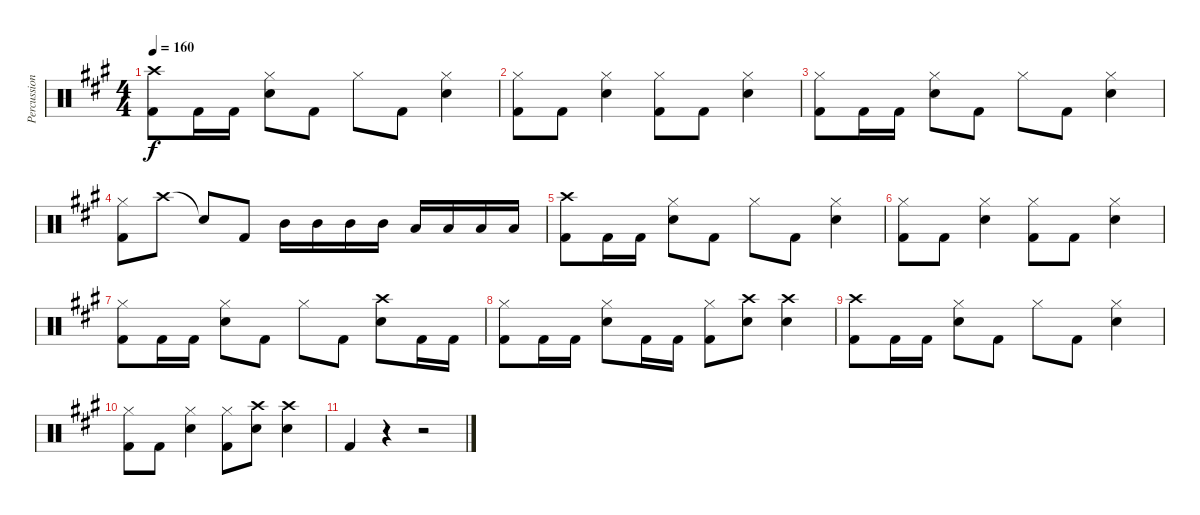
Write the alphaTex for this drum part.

\track ("Percussions" "Percussion") {instrument percussion}
\staff {score}
\articulation defaults
\ts (4 4)
\tempo 160
\clef neutral
\ks a
("Kick (hit) 2" "Crash high (hit)").8{dy f} "Kick (hit) 2".16 "Kick (hit) 2".16 ("Hi-Hat (closed)" "Snare (hit) 2").8 "Kick (hit) 2".8 "Hi-Hat (closed)".8 "Kick (hit) 2".8 ("Hi-Hat (closed)" "Snare (hit) 2").4 |
("Hi-Hat (closed)" "Kick (hit) 2").8 "Kick (hit) 2".8 ("Hi-Hat (closed)" "Snare (hit) 2").4 ("Hi-Hat (closed)" "Kick (hit) 2").8 "Kick (hit) 2".8 ("Hi-Hat (closed)" "Snare (hit) 2").4 |
("Hi-Hat (closed)" "Kick (hit) 2").8 "Kick (hit) 2".16 "Kick (hit) 2".16 ("Hi-Hat (closed)" "Snare (hit) 2").8 "Kick (hit) 2".8 "Hi-Hat (closed)".8 "Kick (hit) 2".8 ("Hi-Hat (closed)" "Snare (hit) 2").4 |
("Hi-Hat (closed)" "Kick (hit) 2").8 "Crash high (hit)".8 "Snare (hit)"{t}.8 "Kick (hit) 2".8 "Mid Tom (hit)".16 "Mid Tom (hit)".16 "Mid Tom (hit)".16 "Mid Tom (hit)".16 "Low Tom (hit)".16 "Low Tom (hit)".16 "Low Tom (hit)".16 "Low Tom (hit)".16 |
("Kick (hit) 2" "Crash high (hit)").8 "Kick (hit) 2".16 "Kick (hit) 2".16 ("Hi-Hat (closed)" "Snare (hit) 2").8 "Kick (hit) 2".8 "Hi-Hat (closed)".8 "Kick (hit) 2".8 ("Hi-Hat (closed)" "Snare (hit) 2").4 |
("Hi-Hat (closed)" "Kick (hit) 2").8 "Kick (hit) 2".8 ("Hi-Hat (closed)" "Snare (hit) 2").4 ("Hi-Hat (closed)" "Kick (hit) 2").8 "Kick (hit) 2".8 ("Hi-Hat (closed)" "Snare (hit) 2").4 |
("Hi-Hat (closed)" "Kick (hit) 2").8 "Kick (hit) 2".16 "Kick (hit) 2".16 ("Hi-Hat (closed)" "Snare (hit) 2").8 "Kick (hit) 2".8 "Hi-Hat (closed)".8 "Kick (hit) 2".8 ("Snare (hit) 2" "Crash high (hit)").8 "Kick (hit) 2".16 "Kick (hit) 2".16 |
("Hi-Hat (closed)" "Kick (hit) 2").8 "Kick (hit) 2".16 "Kick (hit) 2".16 ("Hi-Hat (closed)" "Snare (hit) 2").8 "Kick (hit) 2".16 "Kick (hit) 2".16 ("Hi-Hat (closed)" "Kick (hit) 2").8 ("Snare (hit) 2" "Crash high (hit)").8 ("Snare (hit) 2" "Crash high (hit)").4 |
("Kick (hit) 2" "Crash high (hit)").8 "Kick (hit) 2".16 "Kick (hit) 2".16 ("Hi-Hat (closed)" "Snare (hit) 2").8 "Kick (hit) 2".8 "Hi-Hat (closed)".8 "Kick (hit) 2".8 ("Hi-Hat (closed)" "Snare (hit) 2").4 |
("Hi-Hat (closed)" "Kick (hit) 2").8 "Kick (hit) 2".8 ("Hi-Hat (closed)" "Snare (hit) 2").4 ("Hi-Hat (closed)" "Kick (hit) 2").8 ("Snare (hit) 2" "Crash high (hit)").8 ("Snare (hit) 2" "Crash high (hit)").4 |
"Kick (hit) 2".4 r.4 r.2
